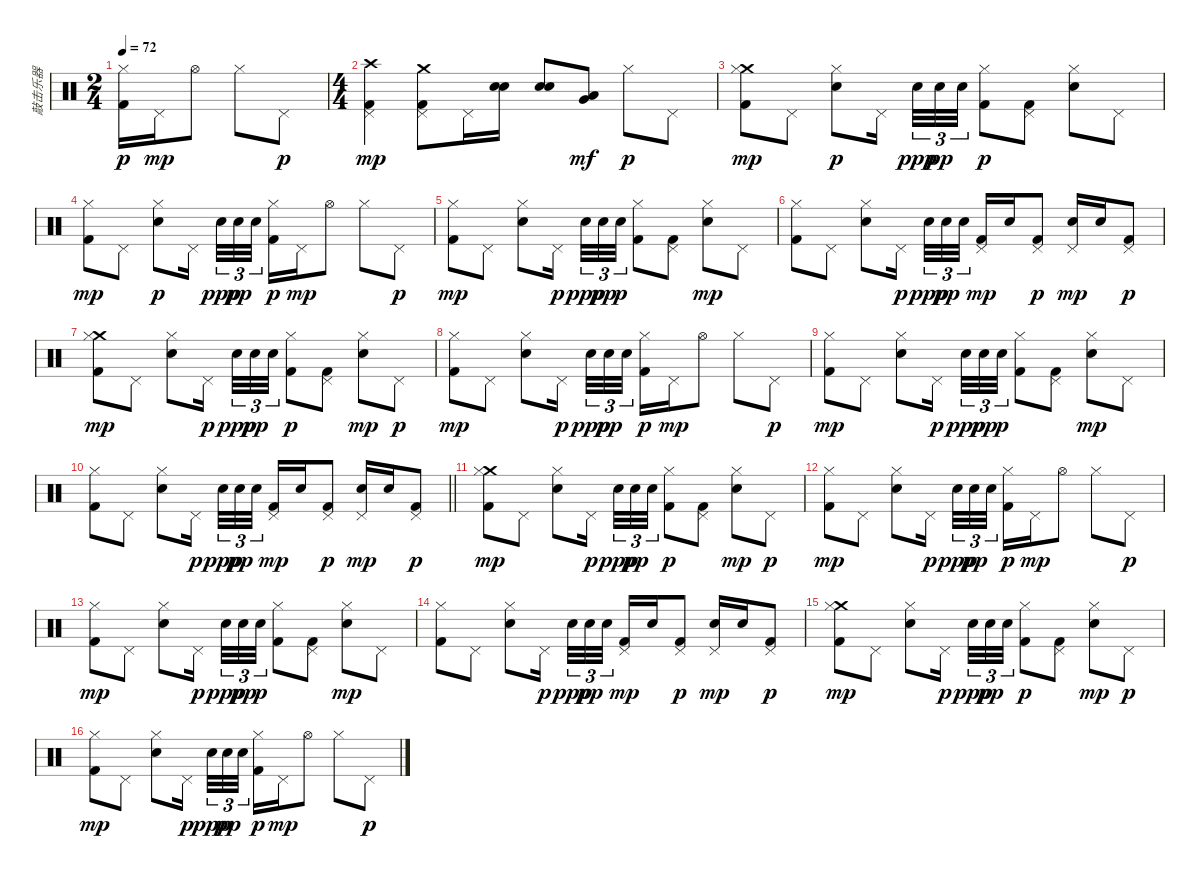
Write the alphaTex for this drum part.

\track ("敲击乐器" "敲击乐器") {instrument percussion}
\staff {score}
\articulation defaults
\ts (2 4)
\tempo 72
\clef neutral
\ks c
("Hi-Hat (closed)" "Kick (hit) 2").16{dy p} "Pedal Hi-Hat (hit)".16{dy mp} "Hi-Hat (open)".8 "Hi-Hat (closed)".8 "Pedal Hi-Hat (hit)".8{dy p} |
\ts (4 4)
("Crash high (hit)" "Pedal Hi-Hat (hit)" "Kick (hit) 2").4{dy mp} ("Crash medium (hit)" "Pedal Hi-Hat (hit)" "Kick (hit) 2").8 "Pedal Hi-Hat (hit)".16 ("Electric Snare (hit)" "Electric Snare (hit)").16 ("Electric Snare (hit)" "Electric Snare (hit)").8 ("Low Tom (hit)" "Very Low Tom (hit)").8{dy mf} "Hi-Hat (closed)".8{dy p} "Pedal Hi-Hat (hit)".8 |
("Crash medium (hit)" "Hi-Hat (closed)" "Kick (hit) 2").8{dy mp} "Pedal Hi-Hat (hit)".8 ("Hi-Hat (closed)" "Electric Snare (hit)").8{dy p} "Pedal Hi-Hat (hit)".16{beam splitsecondary} "Electric Snare (hit)".32{tu (3 2) dy ppp} "Electric Snare (hit)".32{tu (3 2) dy pp} "Electric Snare (hit)".32{tu (3 2)} ("Hi-Hat (closed)" "Kick (hit) 2").8{dy p} ("Pedal Hi-Hat (hit)" "Kick (hit) 2").8 ("Hi-Hat (closed)" "Electric Snare (hit)").8 "Pedal Hi-Hat (hit)".8 |
("Hi-Hat (closed)" "Kick (hit) 2").8{dy mp} "Pedal Hi-Hat (hit)".8 ("Hi-Hat (closed)" "Electric Snare (hit)").8{dy p} "Pedal Hi-Hat (hit)".16{beam splitsecondary} "Electric Snare (hit)".32{tu (3 2) dy ppp} "Electric Snare (hit)".32{tu (3 2) dy pp} "Electric Snare (hit)".32{tu (3 2)} ("Hi-Hat (closed)" "Kick (hit) 2").16{dy p} "Pedal Hi-Hat (hit)".16{dy mp} "Hi-Hat (open)".8 "Hi-Hat (closed)".8 "Pedal Hi-Hat (hit)".8{dy p} |
("Hi-Hat (closed)" "Kick (hit) 2").8{dy mp} "Pedal Hi-Hat (hit)".8 ("Hi-Hat (closed)" "Electric Snare (hit)").8 "Pedal Hi-Hat (hit)".16{dy p beam splitsecondary} "Electric Snare (hit)".32{tu (3 2) dy ppp} "Electric Snare (hit)".32{tu (3 2) dy pp} "Electric Snare (hit)".32{tu (3 2) dy p} ("Hi-Hat (closed)" "Kick (hit) 2").8 ("Pedal Hi-Hat (hit)" "Kick (hit) 2").8 ("Hi-Hat (closed)" "Electric Snare (hit)").8{dy mp} "Pedal Hi-Hat (hit)".8 |
("Hi-Hat (closed)" "Kick (hit) 2").8 "Pedal Hi-Hat (hit)".8 ("Hi-Hat (closed)" "Electric Snare (hit)").8 "Pedal Hi-Hat (hit)".16{dy p beam splitsecondary} "Electric Snare (hit)".32{tu (3 2) dy ppp} "Electric Snare (hit)".32{tu (3 2) dy pp} "Electric Snare (hit)".32{tu (3 2)} ("Pedal Hi-Hat (hit)" "Kick (hit) 2").16{dy mp} "Electric Snare (hit)".16 ("Pedal Hi-Hat (hit)" "Kick (hit) 2").8{dy p} ("Pedal Hi-Hat (hit)" "Electric Snare (hit)").16{dy mp} "Electric Snare (hit)".16 ("Pedal Hi-Hat (hit)" "Kick (hit) 2").8{dy p} |
("Crash medium (hit)" "Hi-Hat (closed)" "Kick (hit) 2").8{dy mp} "Pedal Hi-Hat (hit)".8 ("Hi-Hat (closed)" "Electric Snare (hit)").8 "Pedal Hi-Hat (hit)".16{dy p beam splitsecondary} "Electric Snare (hit)".32{tu (3 2) dy ppp} "Electric Snare (hit)".32{tu (3 2) dy pp} "Electric Snare (hit)".32{tu (3 2)} ("Hi-Hat (closed)" "Kick (hit) 2").8{dy p} ("Pedal Hi-Hat (hit)" "Kick (hit) 2").8 ("Hi-Hat (closed)" "Electric Snare (hit)").8{dy mp} "Pedal Hi-Hat (hit)".8{dy p} |
("Hi-Hat (closed)" "Kick (hit) 2").8{dy mp} "Pedal Hi-Hat (hit)".8 ("Hi-Hat (closed)" "Electric Snare (hit)").8 "Pedal Hi-Hat (hit)".16{dy p beam splitsecondary} "Electric Snare (hit)".32{tu (3 2) dy ppp} "Electric Snare (hit)".32{tu (3 2) dy pp} "Electric Snare (hit)".32{tu (3 2)} ("Hi-Hat (closed)" "Kick (hit) 2").16{dy p} "Pedal Hi-Hat (hit)".16{dy mp} "Hi-Hat (open)".8 "Hi-Hat (closed)".8 "Pedal Hi-Hat (hit)".8{dy p} |
("Hi-Hat (closed)" "Kick (hit) 2").8{dy mp} "Pedal Hi-Hat (hit)".8 ("Hi-Hat (closed)" "Electric Snare (hit)").8 "Pedal Hi-Hat (hit)".16{dy p beam splitsecondary} "Electric Snare (hit)".32{tu (3 2) dy ppp} "Electric Snare (hit)".32{tu (3 2) dy pp} "Electric Snare (hit)".32{tu (3 2) dy p} ("Hi-Hat (closed)" "Kick (hit) 2").8 ("Pedal Hi-Hat (hit)" "Kick (hit) 2").8 ("Hi-Hat (closed)" "Electric Snare (hit)").8{dy mp} "Pedal Hi-Hat (hit)".8 |
\barLineRight lightlight
("Hi-Hat (closed)" "Kick (hit) 2").8 "Pedal Hi-Hat (hit)".8 ("Hi-Hat (closed)" "Electric Snare (hit)").8 "Pedal Hi-Hat (hit)".16{dy p beam splitsecondary} "Electric Snare (hit)".32{tu (3 2) dy ppp} "Electric Snare (hit)".32{tu (3 2) dy pp} "Electric Snare (hit)".32{tu (3 2)} ("Pedal Hi-Hat (hit)" "Kick (hit) 2").16{dy mp} "Electric Snare (hit)".16 ("Pedal Hi-Hat (hit)" "Kick (hit) 2").8{dy p} ("Pedal Hi-Hat (hit)" "Electric Snare (hit)").16{dy mp} "Electric Snare (hit)".16 ("Pedal Hi-Hat (hit)" "Kick (hit) 2").8{dy p} |
("Crash medium (hit)" "Hi-Hat (closed)" "Kick (hit) 2").8{dy mp} "Pedal Hi-Hat (hit)".8 ("Hi-Hat (closed)" "Electric Snare (hit)").8 "Pedal Hi-Hat (hit)".16{dy p beam splitsecondary} "Electric Snare (hit)".32{tu (3 2) dy ppp} "Electric Snare (hit)".32{tu (3 2) dy pp} "Electric Snare (hit)".32{tu (3 2)} ("Hi-Hat (closed)" "Kick (hit) 2").8{dy p} ("Pedal Hi-Hat (hit)" "Kick (hit) 2").8 ("Hi-Hat (closed)" "Electric Snare (hit)").8{dy mp} "Pedal Hi-Hat (hit)".8{dy p} |
("Hi-Hat (closed)" "Kick (hit) 2").8{dy mp} "Pedal Hi-Hat (hit)".8 ("Hi-Hat (closed)" "Electric Snare (hit)").8 "Pedal Hi-Hat (hit)".16{dy p beam splitsecondary} "Electric Snare (hit)".32{tu (3 2) dy ppp} "Electric Snare (hit)".32{tu (3 2) dy pp} "Electric Snare (hit)".32{tu (3 2)} ("Hi-Hat (closed)" "Kick (hit) 2").16{dy p} "Pedal Hi-Hat (hit)".16{dy mp} "Hi-Hat (open)".8 "Hi-Hat (closed)".8 "Pedal Hi-Hat (hit)".8{dy p} |
("Hi-Hat (closed)" "Kick (hit) 2").8{dy mp} "Pedal Hi-Hat (hit)".8 ("Hi-Hat (closed)" "Electric Snare (hit)").8 "Pedal Hi-Hat (hit)".16{dy p beam splitsecondary} "Electric Snare (hit)".32{tu (3 2) dy ppp} "Electric Snare (hit)".32{tu (3 2) dy pp} "Electric Snare (hit)".32{tu (3 2) dy p} ("Hi-Hat (closed)" "Kick (hit) 2").8 ("Pedal Hi-Hat (hit)" "Kick (hit) 2").8 ("Hi-Hat (closed)" "Electric Snare (hit)").8{dy mp} "Pedal Hi-Hat (hit)".8 |
("Hi-Hat (closed)" "Kick (hit) 2").8 "Pedal Hi-Hat (hit)".8 ("Hi-Hat (closed)" "Electric Snare (hit)").8 "Pedal Hi-Hat (hit)".16{dy p beam splitsecondary} "Electric Snare (hit)".32{tu (3 2) dy ppp} "Electric Snare (hit)".32{tu (3 2) dy pp} "Electric Snare (hit)".32{tu (3 2)} ("Pedal Hi-Hat (hit)" "Kick (hit) 2").16{dy mp} "Electric Snare (hit)".16 ("Pedal Hi-Hat (hit)" "Kick (hit) 2").8{dy p} ("Pedal Hi-Hat (hit)" "Electric Snare (hit)").16{dy mp} "Electric Snare (hit)".16 ("Pedal Hi-Hat (hit)" "Kick (hit) 2").8{dy p} |
("Crash medium (hit)" "Hi-Hat (closed)" "Kick (hit) 2").8{dy mp} "Pedal Hi-Hat (hit)".8 ("Hi-Hat (closed)" "Electric Snare (hit)").8 "Pedal Hi-Hat (hit)".16{dy p beam splitsecondary} "Electric Snare (hit)".32{tu (3 2) dy ppp} "Electric Snare (hit)".32{tu (3 2) dy pp} "Electric Snare (hit)".32{tu (3 2)} ("Hi-Hat (closed)" "Kick (hit) 2").8{dy p} ("Pedal Hi-Hat (hit)" "Kick (hit) 2").8 ("Hi-Hat (closed)" "Electric Snare (hit)").8{dy mp} "Pedal Hi-Hat (hit)".8{dy p} |
("Hi-Hat (closed)" "Kick (hit) 2").8{dy mp} "Pedal Hi-Hat (hit)".8 ("Hi-Hat (closed)" "Electric Snare (hit)").8 "Pedal Hi-Hat (hit)".16{dy p beam splitsecondary} "Electric Snare (hit)".32{tu (3 2) dy ppp} "Electric Snare (hit)".32{tu (3 2) dy pp} "Electric Snare (hit)".32{tu (3 2)} ("Hi-Hat (closed)" "Kick (hit) 2").16{dy p} "Pedal Hi-Hat (hit)".16{dy mp} "Hi-Hat (open)".8 "Hi-Hat (closed)".8 "Pedal Hi-Hat (hit)".8{dy p}
